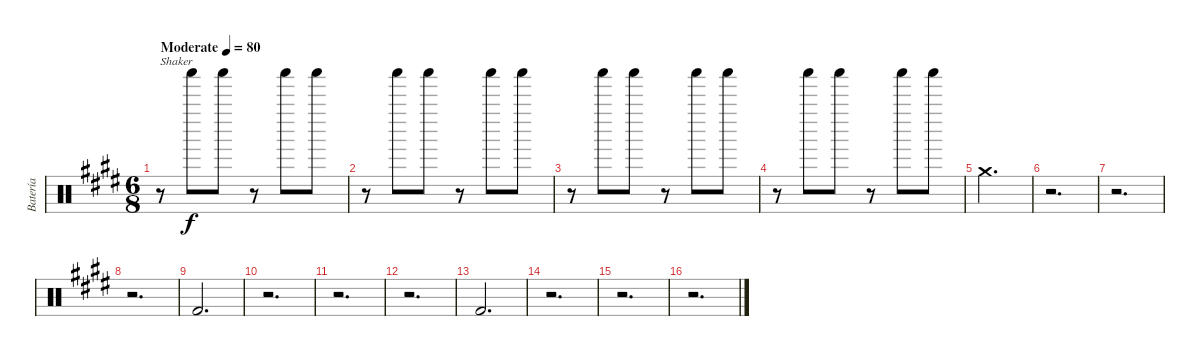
\track ("Batería" "Batería") {instrument percussion}
\staff {score}
\articulation defaults
\ts (6 8)
\tempo (80 "Moderate")
\clef neutral
\ks c#minor
r.8{txt "Shaker" dy f} "Shaker (hit)".8 "Shaker (hit)".8 r.8 "Shaker (hit)".8 "Shaker (hit)".8 |
r.8 "Shaker (hit)".8 "Shaker (hit)".8 r.8 "Shaker (hit)".8 "Shaker (hit)".8 |
r.8 "Shaker (hit)".8 "Shaker (hit)".8 r.8 "Shaker (hit)".8 "Shaker (hit)".8 |
r.8 "Shaker (hit)".8 "Shaker (hit)".8 r.8 "Shaker (hit)".8 "Shaker (hit)".8 |
"Crash medium (hit)".2{d} |
r.2{d} |
r.2{d} |
r.2{d} |
"Kick (hit) 2".2{d} |
r.2{d} |
r.2{d} |
r.2{d} |
"Kick (hit) 2".2{d} |
r.2{d} |
r.2{d} |
r.2{d}
